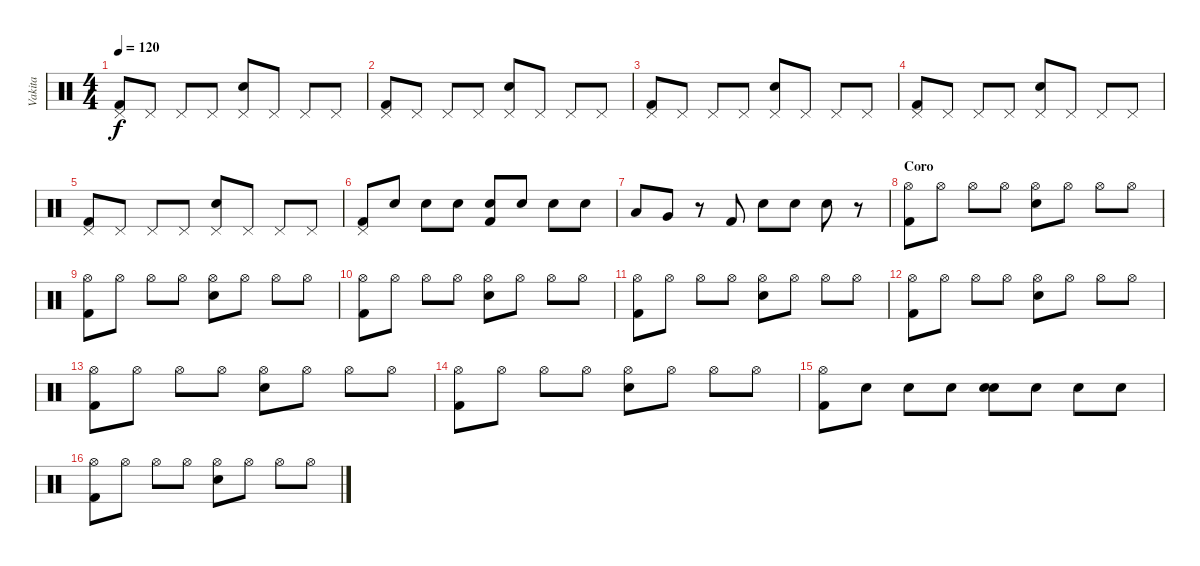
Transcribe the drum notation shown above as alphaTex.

\track ("Vakita" "Vakita") {instrument percussion}
\staff {score}
\articulation defaults
\ts (4 4)
\tempo 120
\clef neutral
\ks c
("Pedal Hi-Hat (hit)" "Kick (hit) 2").8{dy f} "Pedal Hi-Hat (hit)".8 "Pedal Hi-Hat (hit)".8 "Pedal Hi-Hat (hit)".8 ("Pedal Hi-Hat (hit)" "Snare (hit) 2").8 "Pedal Hi-Hat (hit)".8 "Pedal Hi-Hat (hit)".8 "Pedal Hi-Hat (hit)".8 |
("Pedal Hi-Hat (hit)" "Kick (hit) 2").8 "Pedal Hi-Hat (hit)".8 "Pedal Hi-Hat (hit)".8 "Pedal Hi-Hat (hit)".8 ("Pedal Hi-Hat (hit)" "Snare (hit) 2").8 "Pedal Hi-Hat (hit)".8 "Pedal Hi-Hat (hit)".8 "Pedal Hi-Hat (hit)".8 |
("Pedal Hi-Hat (hit)" "Kick (hit) 2").8 "Pedal Hi-Hat (hit)".8 "Pedal Hi-Hat (hit)".8 "Pedal Hi-Hat (hit)".8 ("Pedal Hi-Hat (hit)" "Snare (hit) 2").8 "Pedal Hi-Hat (hit)".8 "Pedal Hi-Hat (hit)".8 "Pedal Hi-Hat (hit)".8 |
("Pedal Hi-Hat (hit)" "Kick (hit) 2").8 "Pedal Hi-Hat (hit)".8 "Pedal Hi-Hat (hit)".8 "Pedal Hi-Hat (hit)".8 ("Pedal Hi-Hat (hit)" "Snare (hit) 2").8 "Pedal Hi-Hat (hit)".8 "Pedal Hi-Hat (hit)".8 "Pedal Hi-Hat (hit)".8 |
("Pedal Hi-Hat (hit)" "Kick (hit) 2").8 "Pedal Hi-Hat (hit)".8 "Pedal Hi-Hat (hit)".8 "Pedal Hi-Hat (hit)".8 ("Pedal Hi-Hat (hit)" "Snare (hit) 2").8 "Pedal Hi-Hat (hit)".8 "Pedal Hi-Hat (hit)".8 "Pedal Hi-Hat (hit)".8 |
("Pedal Hi-Hat (hit)" "Kick (hit) 2").8 "Snare (hit) 2".8 "Snare (hit) 2".8 "Snare (hit) 2".8 ("Snare (hit) 2" "Kick (hit) 2").8 "Snare (hit) 2".8 "Snare (hit) 2".8 "Snare (hit) 2".8 |
"Low Tom (hit)".8 "Very Low Tom (hit)".8 r.8 "Kick (hit) 2".8 "Snare (hit) 2".8 "Snare (hit) 2".8 "Snare (hit) 2".8 r.8 |
\section ("" "Coro")
("Hi-Hat (open)" "Kick (hit) 2").8 "Hi-Hat (open)".8 "Hi-Hat (open)".8 "Hi-Hat (open)".8 ("Hi-Hat (open)" "Snare (hit) 2").8 "Hi-Hat (open)".8 "Hi-Hat (open)".8 "Hi-Hat (open)".8 |
("Hi-Hat (open)" "Kick (hit) 2").8 "Hi-Hat (open)".8 "Hi-Hat (open)".8 "Hi-Hat (open)".8 ("Hi-Hat (open)" "Snare (hit) 2").8 "Hi-Hat (open)".8 "Hi-Hat (open)".8 "Hi-Hat (open)".8 |
("Hi-Hat (open)" "Kick (hit) 2").8 "Hi-Hat (open)".8 "Hi-Hat (open)".8 "Hi-Hat (open)".8 ("Hi-Hat (open)" "Snare (hit) 2").8 "Hi-Hat (open)".8 "Hi-Hat (open)".8 "Hi-Hat (open)".8 |
("Hi-Hat (open)" "Kick (hit) 2").8 "Hi-Hat (open)".8 "Hi-Hat (open)".8 "Hi-Hat (open)".8 ("Hi-Hat (open)" "Snare (hit) 2").8 "Hi-Hat (open)".8 "Hi-Hat (open)".8 "Hi-Hat (open)".8 |
("Hi-Hat (open)" "Kick (hit) 2").8 "Hi-Hat (open)".8 "Hi-Hat (open)".8 "Hi-Hat (open)".8 ("Hi-Hat (open)" "Snare (hit) 2").8 "Hi-Hat (open)".8 "Hi-Hat (open)".8 "Hi-Hat (open)".8 |
("Hi-Hat (open)" "Kick (hit) 2").8 "Hi-Hat (open)".8 "Hi-Hat (open)".8 "Hi-Hat (open)".8 ("Hi-Hat (open)" "Snare (hit) 2").8 "Hi-Hat (open)".8 "Hi-Hat (open)".8 "Hi-Hat (open)".8 |
("Hi-Hat (open)" "Kick (hit) 2").8 "Hi-Hat (open)".8 "Hi-Hat (open)".8 "Hi-Hat (open)".8 ("Hi-Hat (open)" "Snare (hit) 2").8 "Hi-Hat (open)".8 "Hi-Hat (open)".8 "Hi-Hat (open)".8 |
("Hi-Hat (open)" "Kick (hit) 2").8 "Snare (hit) 2".8 "Snare (hit) 2".8 "Snare (hit) 2".8 ("Snare (hit) 2" "Snare (hit) 2").8 "Snare (hit) 2".8 "Snare (hit) 2".8 "Snare (hit) 2".8 |
("Hi-Hat (open)" "Kick (hit) 2").8 "Hi-Hat (open)".8 "Hi-Hat (open)".8 "Hi-Hat (open)".8 ("Hi-Hat (open)" "Snare (hit) 2").8 "Hi-Hat (open)".8 "Hi-Hat (open)".8 "Hi-Hat (open)".8
